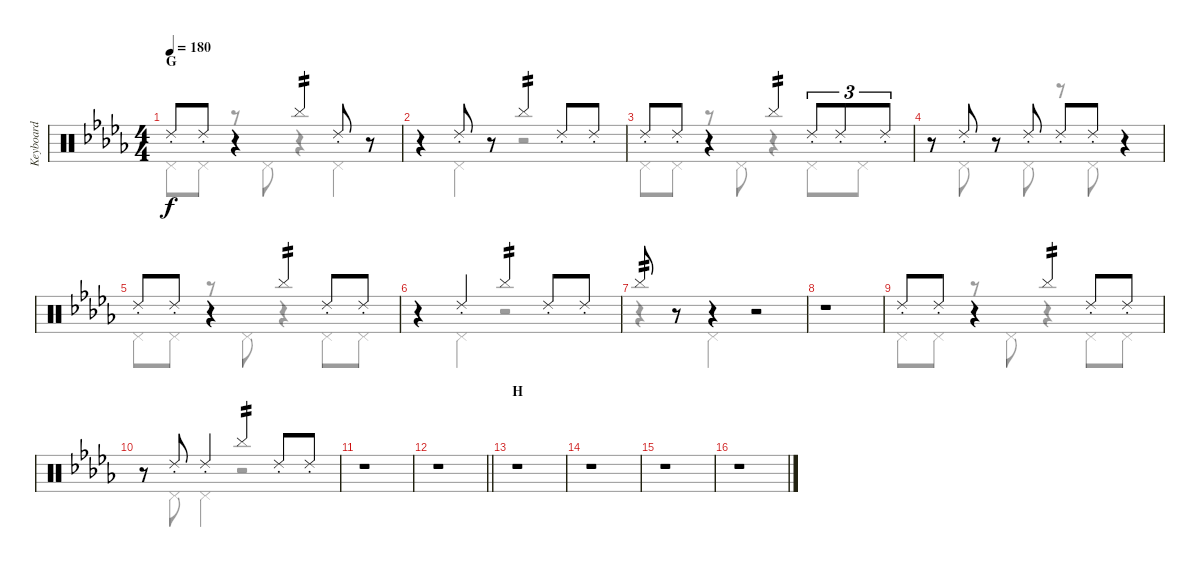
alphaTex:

\track ("Keyboard" "Keyboard") {instrument percussion}
\staff {score}
\articulation defaults
\voice
\ts (4 4)
\section ("" "G")
\tempo 180
\clef neutral
\ks db "Ride (choke) 2".8{dy f} "Ride (choke) 2".8
r.4 "Cymbal (hit)".4{tp 2} "Ride (choke) 2".8 r.8 |
r.4 "Ride (choke) 2".8 r.8 "Cymbal (hit)".4{tp 2} "Ride (choke) 2".8 "Ride (choke) 2".8 |
"Ride (choke) 2".8 "Ride (choke) 2".8 r.4 "Cymbal (hit)".4{tp 2} "Ride (choke) 2".8{tu (3 2)} "Ride (choke) 2".8{tu (3 2) beam merge} "Ride (choke) 2".8{tu (3 2)} |
r.8 "Ride (choke) 2".8 r.8 "Ride (choke) 2".8 "Ride (choke) 2".8 "Ride (choke) 2".8 r.4 |
"Ride (choke) 2".8 "Ride (choke) 2".8 r.4 "Cymbal (hit)".4{tp 2} "Ride (choke) 2".8 "Ride (choke) 2".8 |
r.4 "Ride (choke) 2".4 "Cymbal (hit)".4{tp 2} "Ride (choke) 2".8 "Ride (choke) 2".8 |
"Cymbal (hit)".8{tp 2} r.8 r.4 r.2 |
r.1 |
"Ride (choke) 2".8 "Ride (choke) 2".8 r.4 "Cymbal (hit)".4{tp 2} "Ride (choke) 2".8 "Ride (choke) 2".8 |
r.8 "Ride (choke) 2".8 "Ride (choke) 2".4 "Cymbal (hit)".4{tp 2} "Ride (choke) 2".8 "Ride (choke) 2".8 |
r.1 |
\barLineRight lightlight
r.1 |
\section ("" "H")
r.1 |
r.1 |
r.1 |
r.1
\voice
\clef neutral
\ottava regular
\simile none
\ks db "Pedal Hi-Hat (hit)".8{dy f} "Pedal Hi-Hat (hit)".8
r.8 "Pedal Hi-Hat (hit)".8 r.4 "Pedal Hi-Hat (hit)".4 |
r.4 "Pedal Hi-Hat (hit)".4 r.2 |
"Pedal Hi-Hat (hit)".8 "Pedal Hi-Hat (hit)".8 r.8 "Pedal Hi-Hat (hit)".8 r.4 "Pedal Hi-Hat (hit)".8 "Pedal Hi-Hat (hit)".8 |
r.8 "Pedal Hi-Hat (hit)".8 r.8 "Pedal Hi-Hat (hit)".8 r.8 "Pedal Hi-Hat (hit)".8 r.4 |
"Pedal Hi-Hat (hit)".8 "Pedal Hi-Hat (hit)".8 r.8 "Pedal Hi-Hat (hit)".8 r.4 "Pedal Hi-Hat (hit)".8 "Pedal Hi-Hat (hit)".8 |
r.4 "Pedal Hi-Hat (hit)".4 r.2 |
r.4 "Pedal Hi-Hat (hit)".4 r.2 |
|
"Pedal Hi-Hat (hit)".8 "Pedal Hi-Hat (hit)".8 r.8 "Pedal Hi-Hat (hit)".8 r.4 "Pedal Hi-Hat (hit)".8 "Pedal Hi-Hat (hit)".8 |
r.8 "Pedal Hi-Hat (hit)".8 "Pedal Hi-Hat (hit)".4 r.2 |
|
\barLineRight lightlight
|
|
|
|
